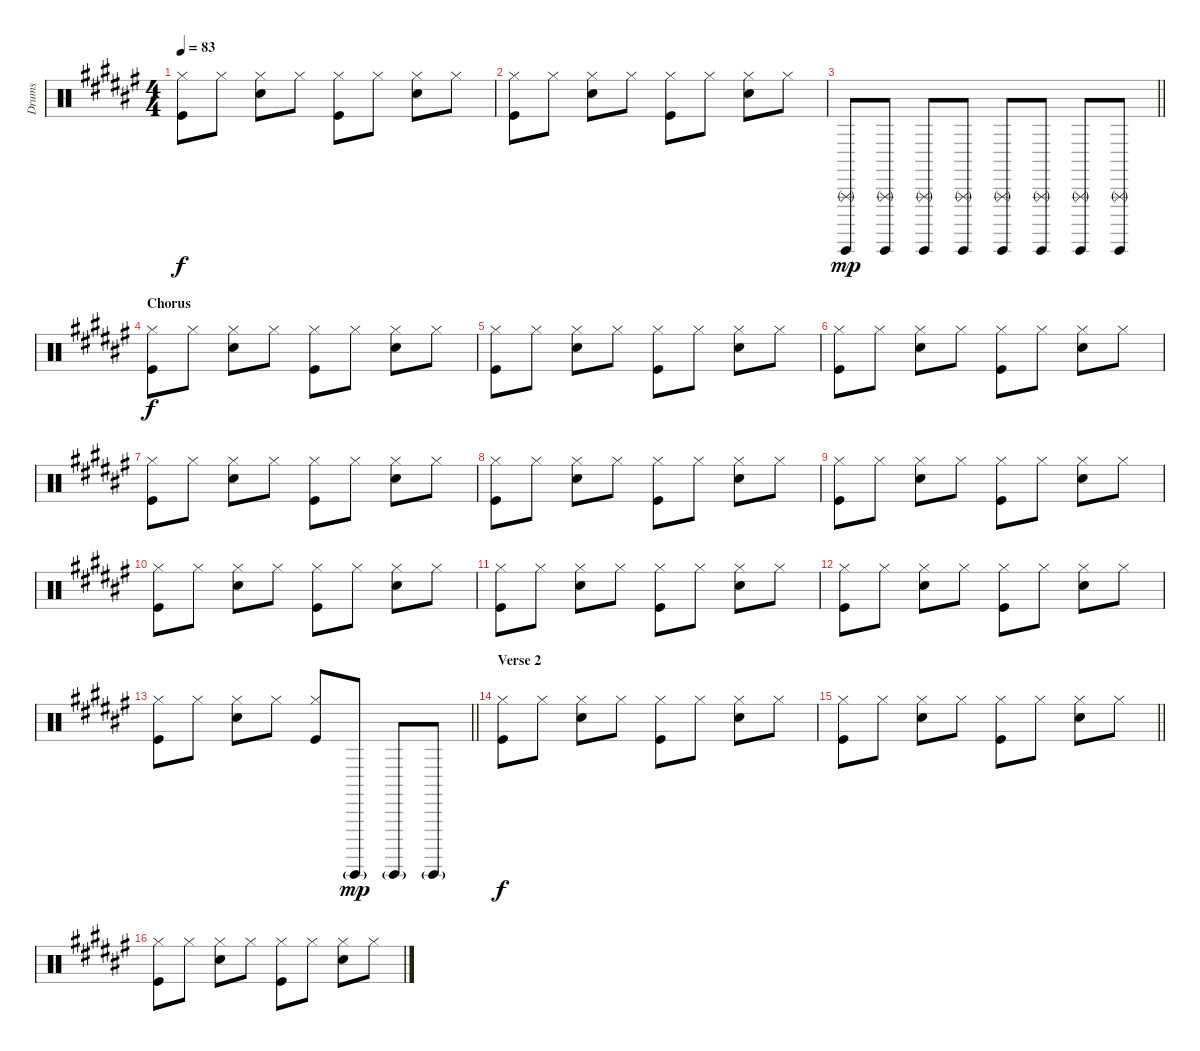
\track ("Drums" "Drums") {instrument percussion}
\staff {score}
\articulation defaults
\ts (4 4)
\tempo 83
\clef neutral
\ks d#minor
("Hi-Hat (closed)" "Kick (hit)").8{dy f} "Hi-Hat (closed)".8 ("Hi-Hat (closed)" "Snare (hit) 2").8 "Hi-Hat (closed)".8 ("Hi-Hat (closed)" "Kick (hit)").8 "Hi-Hat (closed)".8 ("Hi-Hat (closed)" "Snare (hit) 2").8 "Hi-Hat (closed)".8 |
("Hi-Hat (closed)" "Kick (hit)").8 "Hi-Hat (closed)".8 ("Hi-Hat (closed)" "Snare (hit) 2").8 "Hi-Hat (closed)".8 ("Hi-Hat (closed)" "Kick (hit)").8 "Hi-Hat (closed)".8 ("Hi-Hat (closed)" "Snare (hit) 2").8 "Hi-Hat (closed)".8 |
\barLineRight lightlight
("Triangle (rnute)" "Guiro (hit)").8{dy mp} ("Triangle (rnute)" "Guiro (hit)").8 ("Triangle (rnute)" "Guiro (hit)").8 ("Triangle (rnute)" "Guiro (hit)").8 ("Triangle (rnute)" "Guiro (hit)").8 ("Triangle (rnute)" "Guiro (hit)").8 ("Triangle (rnute)" "Guiro (hit)").8 ("Triangle (rnute)" "Guiro (hit)").8 |
\section ("" "Chorus")
("Hi-Hat (closed)" "Kick (hit)").8{dy f} "Hi-Hat (closed)".8 ("Hi-Hat (closed)" "Snare (hit) 2").8 "Hi-Hat (closed)".8 ("Hi-Hat (closed)" "Kick (hit)").8 "Hi-Hat (closed)".8 ("Hi-Hat (closed)" "Snare (hit) 2").8 "Hi-Hat (closed)".8 |
("Hi-Hat (closed)" "Kick (hit)").8 "Hi-Hat (closed)".8 ("Hi-Hat (closed)" "Snare (hit) 2").8 "Hi-Hat (closed)".8 ("Hi-Hat (closed)" "Kick (hit)").8 "Hi-Hat (closed)".8 ("Hi-Hat (closed)" "Snare (hit) 2").8 "Hi-Hat (closed)".8 |
("Hi-Hat (closed)" "Kick (hit)").8 "Hi-Hat (closed)".8 ("Hi-Hat (closed)" "Snare (hit) 2").8 "Hi-Hat (closed)".8 ("Hi-Hat (closed)" "Kick (hit)").8 "Hi-Hat (closed)".8 ("Hi-Hat (closed)" "Snare (hit) 2").8 "Hi-Hat (closed)".8 |
("Hi-Hat (closed)" "Kick (hit)").8 "Hi-Hat (closed)".8 ("Hi-Hat (closed)" "Snare (hit) 2").8 "Hi-Hat (closed)".8 ("Hi-Hat (closed)" "Kick (hit)").8 "Hi-Hat (closed)".8 ("Hi-Hat (closed)" "Snare (hit) 2").8 "Hi-Hat (closed)".8 |
("Hi-Hat (closed)" "Kick (hit)").8 "Hi-Hat (closed)".8 ("Hi-Hat (closed)" "Snare (hit) 2").8 "Hi-Hat (closed)".8 ("Hi-Hat (closed)" "Kick (hit)").8 "Hi-Hat (closed)".8 ("Hi-Hat (closed)" "Snare (hit) 2").8 "Hi-Hat (closed)".8 |
("Hi-Hat (closed)" "Kick (hit)").8 "Hi-Hat (closed)".8 ("Hi-Hat (closed)" "Snare (hit) 2").8 "Hi-Hat (closed)".8 ("Hi-Hat (closed)" "Kick (hit)").8 "Hi-Hat (closed)".8 ("Hi-Hat (closed)" "Snare (hit) 2").8 "Hi-Hat (closed)".8 |
("Hi-Hat (closed)" "Kick (hit)").8 "Hi-Hat (closed)".8 ("Hi-Hat (closed)" "Snare (hit) 2").8 "Hi-Hat (closed)".8 ("Hi-Hat (closed)" "Kick (hit)").8 "Hi-Hat (closed)".8 ("Hi-Hat (closed)" "Snare (hit) 2").8 "Hi-Hat (closed)".8 |
("Hi-Hat (closed)" "Kick (hit)").8 "Hi-Hat (closed)".8 ("Hi-Hat (closed)" "Snare (hit) 2").8 "Hi-Hat (closed)".8 ("Hi-Hat (closed)" "Kick (hit)").8 "Hi-Hat (closed)".8 ("Hi-Hat (closed)" "Snare (hit) 2").8 "Hi-Hat (closed)".8 |
("Hi-Hat (closed)" "Kick (hit)").8 "Hi-Hat (closed)".8 ("Hi-Hat (closed)" "Snare (hit) 2").8 "Hi-Hat (closed)".8 ("Hi-Hat (closed)" "Kick (hit)").8 "Hi-Hat (closed)".8 ("Hi-Hat (closed)" "Snare (hit) 2").8 "Hi-Hat (closed)".8 |
\barLineRight lightlight
("Hi-Hat (closed)" "Kick (hit)").8 "Hi-Hat (closed)".8 ("Hi-Hat (closed)" "Snare (hit) 2").8 "Hi-Hat (closed)".8 ("Hi-Hat (closed)" "Kick (hit)").8 "Guiro (hit)"{g}.8{dy mp} "Guiro (hit)"{g}.8 "Guiro (hit)"{g}.8 |
\section ("" "Verse 2")
("Hi-Hat (closed)" "Kick (hit)").8{dy f} "Hi-Hat (closed)".8 ("Hi-Hat (closed)" "Snare (hit) 2").8 "Hi-Hat (closed)".8 ("Hi-Hat (closed)" "Kick (hit)").8 "Hi-Hat (closed)".8 ("Hi-Hat (closed)" "Snare (hit) 2").8 "Hi-Hat (closed)".8 |
\barLineRight lightlight
("Hi-Hat (closed)" "Kick (hit)").8 "Hi-Hat (closed)".8 ("Hi-Hat (closed)" "Snare (hit) 2").8 "Hi-Hat (closed)".8 ("Hi-Hat (closed)" "Kick (hit)").8 "Hi-Hat (closed)".8 ("Hi-Hat (closed)" "Snare (hit) 2").8 "Hi-Hat (closed)".8 |
("Hi-Hat (closed)" "Kick (hit)").8 "Hi-Hat (closed)".8 ("Hi-Hat (closed)" "Snare (hit) 2").8 "Hi-Hat (closed)".8 ("Hi-Hat (closed)" "Kick (hit)").8 "Hi-Hat (closed)".8 ("Hi-Hat (closed)" "Snare (hit) 2").8 "Hi-Hat (closed)".8
